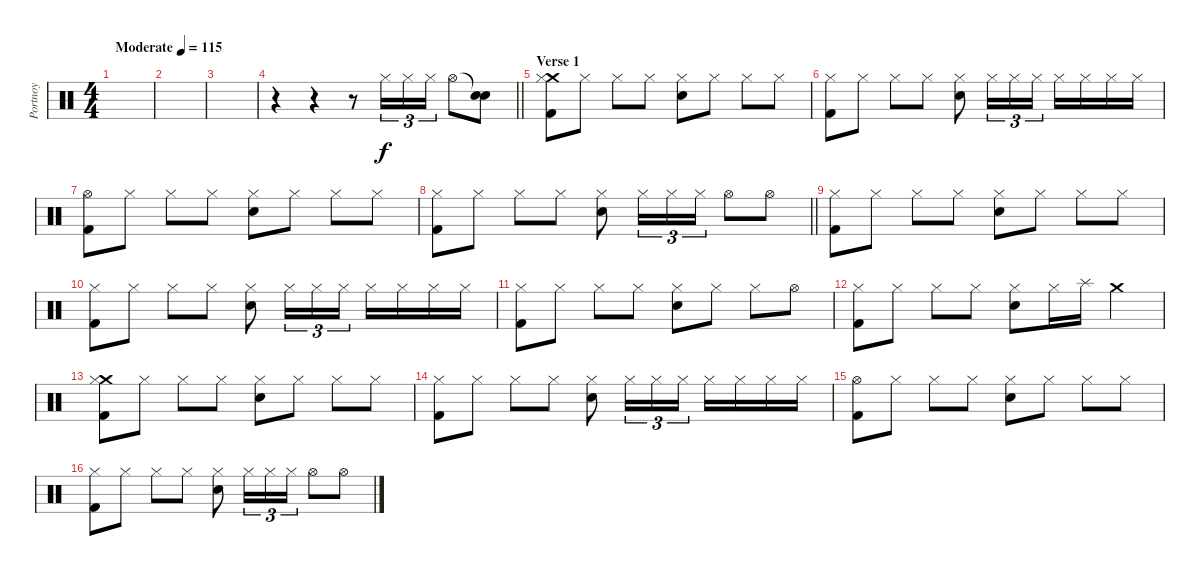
\track ("Portnoy" "Portnoy") {instrument percussion}
\staff {score}
\articulation defaults
\ts (4 4)
\tempo (115 "Moderate")
\clef neutral
\ks c
|
|
|
\barLineRight lightlight
r.4 r.4 r.8 "Hi-Hat (closed)".16{tu (3 2)} "Hi-Hat (closed)".16{tu (3 2)} "Hi-Hat (closed)".16{tu (3 2)} "Hi-Hat (open)".8 ("Snare (hit)"{t} "Snare (hit)").8 |
\section ("" "Verse 1")
("Crash medium (hit)" "Hi-Hat (closed)" "Kick (hit) 2").8 "Hi-Hat (closed)".8 "Hi-Hat (closed)".8 "Hi-Hat (closed)".8 ("Hi-Hat (closed)" "Snare (hit) 2").8 "Hi-Hat (closed)".8 "Hi-Hat (closed)".8 "Hi-Hat (closed)".8 |
("Hi-Hat (closed)" "Kick (hit) 2").8 "Hi-Hat (closed)".8 "Hi-Hat (closed)".8 "Hi-Hat (closed)".8 ("Hi-Hat (closed)" "Snare (hit) 2").8 "Hi-Hat (closed)".16{tu (3 2)} "Hi-Hat (closed)".16{tu (3 2)} "Hi-Hat (closed)".16{tu (3 2)} "Hi-Hat (closed)".16 "Hi-Hat (closed)".16 "Hi-Hat (closed)".16 "Hi-Hat (closed)".16 |
("Hi-Hat (open)" "Kick (hit) 2").8 "Hi-Hat (closed)".8 "Hi-Hat (closed)".8 "Hi-Hat (closed)".8 ("Hi-Hat (closed)" "Snare (hit) 2").8 "Hi-Hat (closed)".8 "Hi-Hat (closed)".8 "Hi-Hat (closed)".8 |
\barLineRight lightlight
("Hi-Hat (closed)" "Kick (hit) 2").8 "Hi-Hat (closed)".8 "Hi-Hat (closed)".8 "Hi-Hat (closed)".8 ("Hi-Hat (closed)" "Snare (hit) 2").8 "Hi-Hat (closed)".16{tu (3 2)} "Hi-Hat (closed)".16{tu (3 2)} "Hi-Hat (closed)".16{tu (3 2)} "Hi-Hat (open)".8 "Hi-Hat (open)".8 |
("Hi-Hat (closed)" "Kick (hit) 2").8 "Hi-Hat (closed)".8 "Hi-Hat (closed)".8 "Hi-Hat (closed)".8 ("Hi-Hat (closed)" "Snare (hit) 2").8 "Hi-Hat (closed)".8 "Hi-Hat (closed)".8 "Hi-Hat (closed)".8 |
("Hi-Hat (closed)" "Kick (hit) 2").8 "Hi-Hat (closed)".8 "Hi-Hat (closed)".8 "Hi-Hat (closed)".8 ("Hi-Hat (closed)" "Snare (hit) 2").8 "Hi-Hat (closed)".16{tu (3 2)} "Hi-Hat (closed)".16{tu (3 2)} "Hi-Hat (closed)".16{tu (3 2)} "Hi-Hat (closed)".16 "Hi-Hat (closed)".16 "Hi-Hat (closed)".16 "Hi-Hat (closed)".16 |
("Hi-Hat (closed)" "Kick (hit) 2").8 "Hi-Hat (closed)".8 "Hi-Hat (closed)".8 "Hi-Hat (closed)".8 ("Hi-Hat (closed)" "Snare (hit) 2").8 "Hi-Hat (closed)".8 "Hi-Hat (closed)".8 "Hi-Hat (open)".8 |
("Hi-Hat (closed)" "Kick (hit) 2").8 "Hi-Hat (closed)".8 "Hi-Hat (closed)".8 "Hi-Hat (closed)".8 ("Hi-Hat (closed)" "Snare (hit) 2").8 "Hi-Hat (closed)".16 "Splash (hit)".16 "Crash medium (hit)".4 |
("Crash medium (hit)" "Hi-Hat (closed)" "Kick (hit) 2").8 "Hi-Hat (closed)".8 "Hi-Hat (closed)".8 "Hi-Hat (closed)".8 ("Hi-Hat (closed)" "Snare (hit) 2").8 "Hi-Hat (closed)".8 "Hi-Hat (closed)".8 "Hi-Hat (closed)".8 |
("Hi-Hat (closed)" "Kick (hit) 2").8 "Hi-Hat (closed)".8 "Hi-Hat (closed)".8 "Hi-Hat (closed)".8 ("Hi-Hat (closed)" "Snare (hit) 2").8 "Hi-Hat (closed)".16{tu (3 2)} "Hi-Hat (closed)".16{tu (3 2)} "Hi-Hat (closed)".16{tu (3 2)} "Hi-Hat (closed)".16 "Hi-Hat (closed)".16 "Hi-Hat (closed)".16 "Hi-Hat (closed)".16 |
("Hi-Hat (open)" "Kick (hit) 2").8 "Hi-Hat (closed)".8 "Hi-Hat (closed)".8 "Hi-Hat (closed)".8 ("Hi-Hat (closed)" "Snare (hit) 2").8 "Hi-Hat (closed)".8 "Hi-Hat (closed)".8 "Hi-Hat (closed)".8 |
("Hi-Hat (closed)" "Kick (hit) 2").8 "Hi-Hat (closed)".8 "Hi-Hat (closed)".8 "Hi-Hat (closed)".8 ("Hi-Hat (closed)" "Snare (hit) 2").8 "Hi-Hat (closed)".16{tu (3 2)} "Hi-Hat (closed)".16{tu (3 2)} "Hi-Hat (closed)".16{tu (3 2)} "Hi-Hat (open)".8 "Hi-Hat (open)".8
